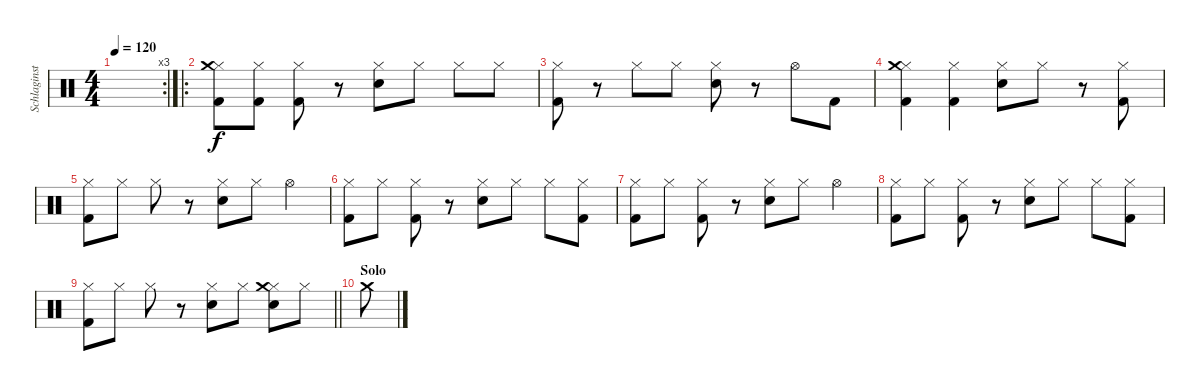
\track ("Schlaginstrumente - Auswahl" "Schlaginst") {instrument percussion}
\staff {score}
\articulation defaults
\rc 3
\ts (4 4)
\tempo 120
\clef neutral
\ks c
|
\ro
("Hi-Hat (closed)" "Crash medium (hit)" "Kick (hit) 2").8 ("Hi-Hat (closed)" "Kick (hit) 2").8 ("Hi-Hat (closed)" "Kick (hit) 2").8 r.8 ("Hi-Hat (closed)" "Electric Snare (hit)").8 "Hi-Hat (closed)".8 "Hi-Hat (closed)".8 "Hi-Hat (closed)".8 |
("Hi-Hat (closed)" "Kick (hit) 2").8 r.8 "Hi-Hat (closed)".8 "Hi-Hat (closed)".8 ("Hi-Hat (closed)" "Electric Snare (hit)").8 r.8 "Hi-Hat (open)".8 "Kick (hit) 2".8 |
("Hi-Hat (closed)" "Crash medium (hit)" "Kick (hit) 2").4 ("Hi-Hat (closed)" "Kick (hit) 2").4 ("Hi-Hat (closed)" "Electric Snare (hit)").8 "Hi-Hat (closed)".8 r.8 ("Hi-Hat (closed)" "Kick (hit) 2").8 |
("Hi-Hat (closed)" "Kick (hit) 2").8 "Hi-Hat (closed)".8 "Hi-Hat (closed)".8 r.8 ("Hi-Hat (closed)" "Electric Snare (hit)").8 "Hi-Hat (closed)".8 "Hi-Hat (open)".4 |
("Hi-Hat (closed)" "Kick (hit) 2").8 "Hi-Hat (closed)".8 ("Hi-Hat (closed)" "Kick (hit) 2").8 r.8 ("Hi-Hat (closed)" "Electric Snare (hit)").8 "Hi-Hat (closed)".8 "Hi-Hat (closed)".8 ("Hi-Hat (closed)" "Kick (hit) 2").8 |
("Hi-Hat (closed)" "Kick (hit) 2").8 "Hi-Hat (closed)".8 ("Hi-Hat (closed)" "Kick (hit) 2").8 r.8 ("Hi-Hat (closed)" "Electric Snare (hit)").8 "Hi-Hat (closed)".8 "Hi-Hat (open)".4 |
("Hi-Hat (closed)" "Kick (hit) 2").8 "Hi-Hat (closed)".8 ("Hi-Hat (closed)" "Kick (hit) 2").8 r.8 ("Hi-Hat (closed)" "Electric Snare (hit)").8 "Hi-Hat (closed)".8 "Hi-Hat (closed)".8 ("Hi-Hat (closed)" "Kick (hit) 2").8 |
\barLineRight lightlight
("Hi-Hat (closed)" "Kick (hit) 2").8 "Hi-Hat (closed)".8 "Hi-Hat (closed)".8 r.8 ("Hi-Hat (closed)" "Electric Snare (hit)").8 "Hi-Hat (closed)".8 ("Hi-Hat (closed)" "Electric Snare (hit)" "Crash medium (hit)").8 "Hi-Hat (closed)".8 |
\section ("" "Solo")
"Crash medium (hit)".8
